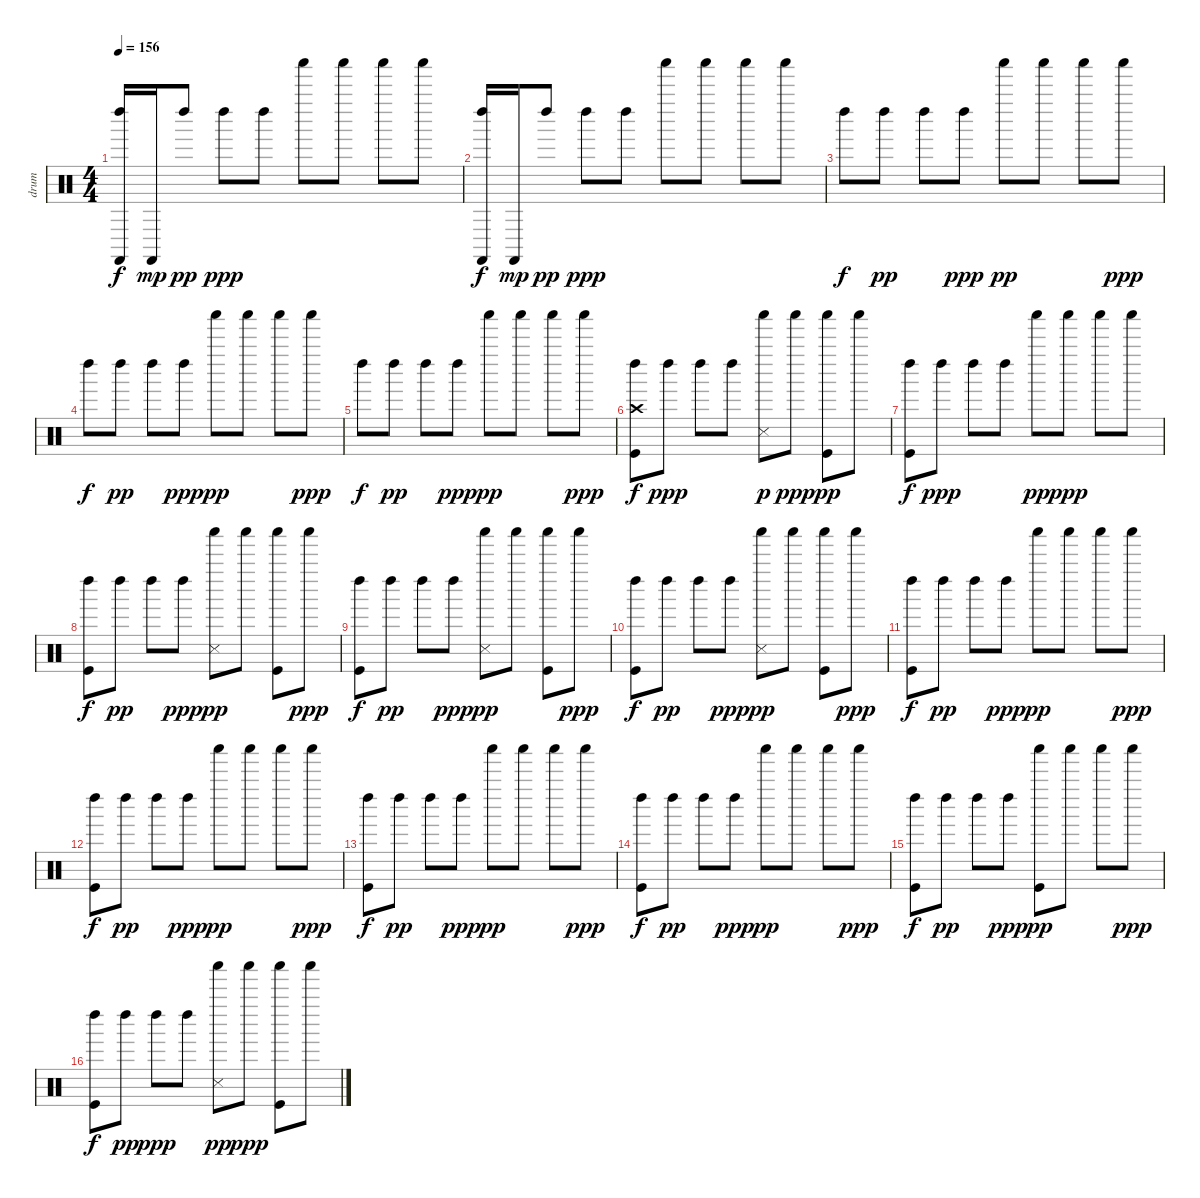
\track ("drum" "drum") {instrument percussion}
\staff {score}
\articulation defaults
\ts (4 4)
\tempo 156
\clef neutral
\ks c
("Castanets (hit)" "Left Maraca (hit)").16{dy f} "Castanets (hit)".16{dy mp} "Left Maraca (hit)".8{dy pp} "Left Maraca (hit)".8{dy ppp} "Left Maraca (hit)".8 "Shaker (hit)".8 "Shaker (hit)".8 "Shaker (hit)".8 "Shaker (hit)".8 |
("Castanets (hit)" "Left Maraca (hit)").16{dy f} "Castanets (hit)".16{dy mp} "Left Maraca (hit)".8{dy pp} "Left Maraca (hit)".8{dy ppp} "Left Maraca (hit)".8 "Shaker (hit)".8 "Shaker (hit)".8 "Shaker (hit)".8 "Shaker (hit)".8 |
"Left Maraca (hit)".8{dy f} "Left Maraca (hit)".8{dy pp} "Left Maraca (hit)".8 "Left Maraca (hit)".8{dy ppp} "Shaker (hit)".8{dy pp} "Shaker (hit)".8 "Shaker (hit)".8 "Shaker (hit)".8{dy ppp} |
"Left Maraca (hit)".8{dy f} "Left Maraca (hit)".8{dy pp} "Left Maraca (hit)".8 "Left Maraca (hit)".8{dy ppp} "Shaker (hit)".8{dy pp} "Shaker (hit)".8 "Shaker (hit)".8 "Shaker (hit)".8{dy ppp} |
"Left Maraca (hit)".8{dy f} "Left Maraca (hit)".8{dy pp} "Left Maraca (hit)".8 "Left Maraca (hit)".8{dy ppp} "Shaker (hit)".8{dy pp} "Shaker (hit)".8 "Shaker (hit)".8 "Shaker (hit)".8{dy ppp} |
("Crash high (hit)" "Kick (hit)" "Left Maraca (hit)").8{dy f} "Left Maraca (hit)".8{dy ppp} "Left Maraca (hit)".8 "Left Maraca (hit)".8 ("Snare (side stick) 3" "Shaker (hit)").8{dy p} "Shaker (hit)".8{dy ppp} ("Shaker (hit)" "Kick (hit)").8{dy pp} "Shaker (hit)".8 |
("Left Maraca (hit)" "Kick (hit)").8{dy f} "Left Maraca (hit)".8{dy ppp} "Left Maraca (hit)".8 "Left Maraca (hit)".8 "Shaker (hit)".8{dy pp} "Shaker (hit)".8{dy ppp} "Shaker (hit)".8 "Shaker (hit)".8 |
("Kick (hit)" "Left Maraca (hit)").8{dy f} "Left Maraca (hit)".8{dy pp} "Left Maraca (hit)".8 "Left Maraca (hit)".8{dy ppp} ("Snare (side stick) 3" "Shaker (hit)").8{dy pp} "Shaker (hit)".8 ("Kick (hit)" "Shaker (hit)").8 "Shaker (hit)".8{dy ppp} |
("Kick (hit)" "Left Maraca (hit)").8{dy f} "Left Maraca (hit)".8{dy pp} "Left Maraca (hit)".8 "Left Maraca (hit)".8{dy ppp} ("Snare (side stick) 3" "Shaker (hit)").8{dy pp} "Shaker (hit)".8 ("Kick (hit)" "Shaker (hit)").8 "Shaker (hit)".8{dy ppp} |
("Kick (hit)" "Left Maraca (hit)").8{dy f} "Left Maraca (hit)".8{dy pp} "Left Maraca (hit)".8 "Left Maraca (hit)".8{dy ppp} ("Snare (side stick) 3" "Shaker (hit)").8{dy pp} "Shaker (hit)".8 ("Kick (hit)" "Shaker (hit)").8 "Shaker (hit)".8{dy ppp} |
("Kick (hit)" "Left Maraca (hit)").8{dy f} "Left Maraca (hit)".8{dy pp} "Left Maraca (hit)".8 "Left Maraca (hit)".8{dy ppp} "Shaker (hit)".8{dy pp} "Shaker (hit)".8 "Shaker (hit)".8 "Shaker (hit)".8{dy ppp} |
("Kick (hit)" "Left Maraca (hit)").8{dy f} "Left Maraca (hit)".8{dy pp} "Left Maraca (hit)".8 "Left Maraca (hit)".8{dy ppp} "Shaker (hit)".8{dy pp} "Shaker (hit)".8 "Shaker (hit)".8 "Shaker (hit)".8{dy ppp} |
("Kick (hit)" "Left Maraca (hit)").8{dy f} "Left Maraca (hit)".8{dy pp} "Left Maraca (hit)".8 "Left Maraca (hit)".8{dy ppp} "Shaker (hit)".8{dy pp} "Shaker (hit)".8 "Shaker (hit)".8 "Shaker (hit)".8{dy ppp} |
("Kick (hit)" "Left Maraca (hit)").8{dy f} "Left Maraca (hit)".8{dy pp} "Left Maraca (hit)".8 "Left Maraca (hit)".8{dy ppp} "Shaker (hit)".8{dy pp} "Shaker (hit)".8 "Shaker (hit)".8 "Shaker (hit)".8{dy ppp} |
("Kick (hit)" "Left Maraca (hit)").8{dy f} "Left Maraca (hit)".8{dy pp} "Left Maraca (hit)".8 "Left Maraca (hit)".8{dy ppp} ("Kick (hit)" "Shaker (hit)").8{dy pp} "Shaker (hit)".8 "Shaker (hit)".8 "Shaker (hit)".8{dy ppp} |
("Left Maraca (hit)" "Kick (hit)").8{dy f} "Left Maraca (hit)".8{dy pp} "Left Maraca (hit)".8{dy ppp} "Left Maraca (hit)".8 ("Shaker (hit)" "Snare (side stick) 3").8{dy pp} "Shaker (hit)".8{dy ppp} ("Shaker (hit)" "Kick (hit)").8 "Shaker (hit)".8
